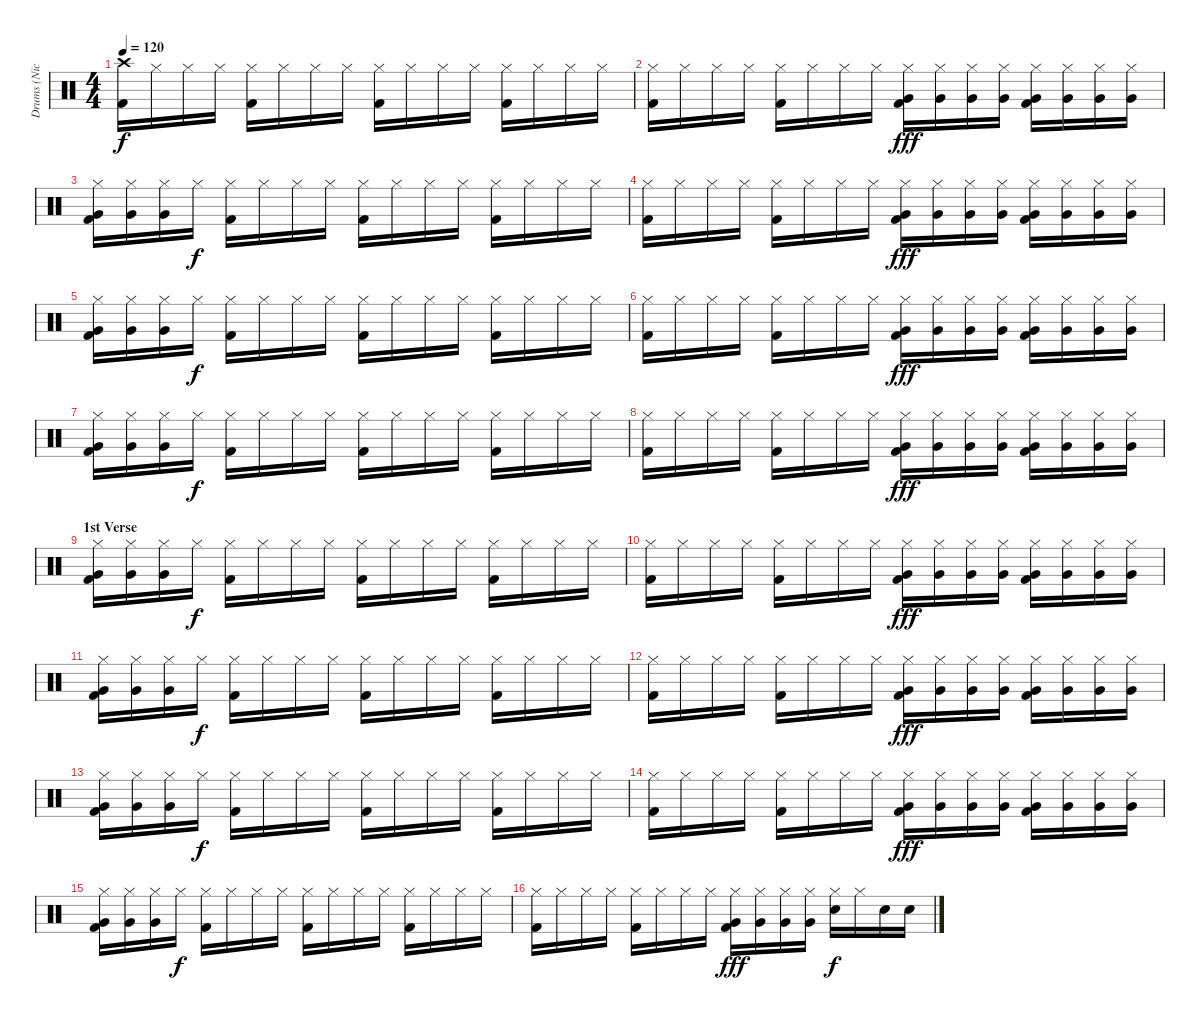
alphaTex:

\track ("Drums (Nick Menza)" "Drums (Nic") {instrument percussion}
\staff {score}
\articulation defaults
\ts (4 4)
\tempo 120
\clef neutral
\ks c
("Crash high (hit)" "Kick (hit) 2").16{dy f} "Hi-Hat (closed)".16 "Hi-Hat (closed)".16 "Hi-Hat (closed)".16 ("Hi-Hat (closed)" "Kick (hit) 2").16 "Hi-Hat (closed)".16 "Hi-Hat (closed)".16 "Hi-Hat (closed)".16 ("Hi-Hat (closed)" "Kick (hit) 2").16 "Hi-Hat (closed)".16 "Hi-Hat (closed)".16 "Hi-Hat (closed)".16 ("Hi-Hat (closed)" "Kick (hit) 2").16 "Hi-Hat (closed)".16 "Hi-Hat (closed)".16 "Hi-Hat (closed)".16 |
("Hi-Hat (closed)" "Kick (hit) 2").16 "Hi-Hat (closed)".16 "Hi-Hat (closed)".16 "Hi-Hat (closed)".16 ("Hi-Hat (closed)" "Kick (hit) 2").16 "Hi-Hat (closed)".16 "Hi-Hat (closed)".16 "Hi-Hat (closed)".16 ("Hi-Hat (closed)" "Very Low Tom (hit)" "Kick (hit) 2").16{dy fff} ("Hi-Hat (closed)" "Very Low Tom (hit)").16 ("Hi-Hat (closed)" "Very Low Tom (hit)").16 ("Hi-Hat (closed)" "Very Low Tom (hit)").16 ("Hi-Hat (closed)" "Very Low Tom (hit)" "Kick (hit) 2").16 ("Hi-Hat (closed)" "Very Low Tom (hit)").16 ("Hi-Hat (closed)" "Very Low Tom (hit)").16 ("Hi-Hat (closed)" "Very Low Tom (hit)").16 |
("Hi-Hat (closed)" "Very Low Tom (hit)" "Kick (hit) 2").16 ("Hi-Hat (closed)" "Very Low Tom (hit)").16 ("Hi-Hat (closed)" "Very Low Tom (hit)").16 "Hi-Hat (closed)".16{dy f} ("Hi-Hat (closed)" "Kick (hit) 2").16 "Hi-Hat (closed)".16 "Hi-Hat (closed)".16 "Hi-Hat (closed)".16 ("Hi-Hat (closed)" "Kick (hit) 2").16 "Hi-Hat (closed)".16 "Hi-Hat (closed)".16 "Hi-Hat (closed)".16 ("Hi-Hat (closed)" "Kick (hit) 2").16 "Hi-Hat (closed)".16 "Hi-Hat (closed)".16 "Hi-Hat (closed)".16 |
("Hi-Hat (closed)" "Kick (hit) 2").16 "Hi-Hat (closed)".16 "Hi-Hat (closed)".16 "Hi-Hat (closed)".16 ("Hi-Hat (closed)" "Kick (hit) 2").16 "Hi-Hat (closed)".16 "Hi-Hat (closed)".16 "Hi-Hat (closed)".16 ("Hi-Hat (closed)" "Very Low Tom (hit)" "Kick (hit) 2").16{dy fff} ("Hi-Hat (closed)" "Very Low Tom (hit)").16 ("Hi-Hat (closed)" "Very Low Tom (hit)").16 ("Hi-Hat (closed)" "Very Low Tom (hit)").16 ("Hi-Hat (closed)" "Very Low Tom (hit)" "Kick (hit) 2").16 ("Hi-Hat (closed)" "Very Low Tom (hit)").16 ("Hi-Hat (closed)" "Very Low Tom (hit)").16 ("Hi-Hat (closed)" "Very Low Tom (hit)").16 |
("Hi-Hat (closed)" "Very Low Tom (hit)" "Kick (hit) 2").16 ("Hi-Hat (closed)" "Very Low Tom (hit)").16 ("Hi-Hat (closed)" "Very Low Tom (hit)").16 "Hi-Hat (closed)".16{dy f} ("Hi-Hat (closed)" "Kick (hit) 2").16 "Hi-Hat (closed)".16 "Hi-Hat (closed)".16 "Hi-Hat (closed)".16 ("Hi-Hat (closed)" "Kick (hit) 2").16 "Hi-Hat (closed)".16 "Hi-Hat (closed)".16 "Hi-Hat (closed)".16 ("Hi-Hat (closed)" "Kick (hit) 2").16 "Hi-Hat (closed)".16 "Hi-Hat (closed)".16 "Hi-Hat (closed)".16 |
("Hi-Hat (closed)" "Kick (hit) 2").16 "Hi-Hat (closed)".16 "Hi-Hat (closed)".16 "Hi-Hat (closed)".16 ("Hi-Hat (closed)" "Kick (hit) 2").16 "Hi-Hat (closed)".16 "Hi-Hat (closed)".16 "Hi-Hat (closed)".16 ("Hi-Hat (closed)" "Very Low Tom (hit)" "Kick (hit) 2").16{dy fff} ("Hi-Hat (closed)" "Very Low Tom (hit)").16 ("Hi-Hat (closed)" "Very Low Tom (hit)").16 ("Hi-Hat (closed)" "Very Low Tom (hit)").16 ("Hi-Hat (closed)" "Very Low Tom (hit)" "Kick (hit) 2").16 ("Hi-Hat (closed)" "Very Low Tom (hit)").16 ("Hi-Hat (closed)" "Very Low Tom (hit)").16 ("Hi-Hat (closed)" "Very Low Tom (hit)").16 |
("Hi-Hat (closed)" "Very Low Tom (hit)" "Kick (hit) 2").16 ("Hi-Hat (closed)" "Very Low Tom (hit)").16 ("Hi-Hat (closed)" "Very Low Tom (hit)").16 "Hi-Hat (closed)".16{dy f} ("Hi-Hat (closed)" "Kick (hit) 2").16 "Hi-Hat (closed)".16 "Hi-Hat (closed)".16 "Hi-Hat (closed)".16 ("Hi-Hat (closed)" "Kick (hit) 2").16 "Hi-Hat (closed)".16 "Hi-Hat (closed)".16 "Hi-Hat (closed)".16 ("Hi-Hat (closed)" "Kick (hit) 2").16 "Hi-Hat (closed)".16 "Hi-Hat (closed)".16 "Hi-Hat (closed)".16 |
("Hi-Hat (closed)" "Kick (hit) 2").16 "Hi-Hat (closed)".16 "Hi-Hat (closed)".16 "Hi-Hat (closed)".16 ("Hi-Hat (closed)" "Kick (hit) 2").16 "Hi-Hat (closed)".16 "Hi-Hat (closed)".16 "Hi-Hat (closed)".16 ("Hi-Hat (closed)" "Very Low Tom (hit)" "Kick (hit) 2").16{dy fff} ("Hi-Hat (closed)" "Very Low Tom (hit)").16 ("Hi-Hat (closed)" "Very Low Tom (hit)").16 ("Hi-Hat (closed)" "Very Low Tom (hit)").16 ("Hi-Hat (closed)" "Very Low Tom (hit)" "Kick (hit) 2").16 ("Hi-Hat (closed)" "Very Low Tom (hit)").16 ("Hi-Hat (closed)" "Very Low Tom (hit)").16 ("Hi-Hat (closed)" "Very Low Tom (hit)").16 |
\section ("" "1st Verse")
("Hi-Hat (closed)" "Very Low Tom (hit)" "Kick (hit) 2").16 ("Hi-Hat (closed)" "Very Low Tom (hit)").16 ("Hi-Hat (closed)" "Very Low Tom (hit)").16 "Hi-Hat (closed)".16{dy f} ("Hi-Hat (closed)" "Kick (hit) 2").16 "Hi-Hat (closed)".16 "Hi-Hat (closed)".16 "Hi-Hat (closed)".16 ("Hi-Hat (closed)" "Kick (hit) 2").16 "Hi-Hat (closed)".16 "Hi-Hat (closed)".16 "Hi-Hat (closed)".16 ("Hi-Hat (closed)" "Kick (hit) 2").16 "Hi-Hat (closed)".16 "Hi-Hat (closed)".16 "Hi-Hat (closed)".16 |
("Hi-Hat (closed)" "Kick (hit) 2").16 "Hi-Hat (closed)".16 "Hi-Hat (closed)".16 "Hi-Hat (closed)".16 ("Hi-Hat (closed)" "Kick (hit) 2").16 "Hi-Hat (closed)".16 "Hi-Hat (closed)".16 "Hi-Hat (closed)".16 ("Hi-Hat (closed)" "Very Low Tom (hit)" "Kick (hit) 2").16{dy fff} ("Hi-Hat (closed)" "Very Low Tom (hit)").16 ("Hi-Hat (closed)" "Very Low Tom (hit)").16 ("Hi-Hat (closed)" "Very Low Tom (hit)").16 ("Hi-Hat (closed)" "Very Low Tom (hit)" "Kick (hit) 2").16 ("Hi-Hat (closed)" "Very Low Tom (hit)").16 ("Hi-Hat (closed)" "Very Low Tom (hit)").16 ("Hi-Hat (closed)" "Very Low Tom (hit)").16 |
("Hi-Hat (closed)" "Very Low Tom (hit)" "Kick (hit) 2").16 ("Hi-Hat (closed)" "Very Low Tom (hit)").16 ("Hi-Hat (closed)" "Very Low Tom (hit)").16 "Hi-Hat (closed)".16{dy f} ("Hi-Hat (closed)" "Kick (hit) 2").16 "Hi-Hat (closed)".16 "Hi-Hat (closed)".16 "Hi-Hat (closed)".16 ("Hi-Hat (closed)" "Kick (hit) 2").16 "Hi-Hat (closed)".16 "Hi-Hat (closed)".16 "Hi-Hat (closed)".16 ("Hi-Hat (closed)" "Kick (hit) 2").16 "Hi-Hat (closed)".16 "Hi-Hat (closed)".16 "Hi-Hat (closed)".16 |
("Hi-Hat (closed)" "Kick (hit) 2").16 "Hi-Hat (closed)".16 "Hi-Hat (closed)".16 "Hi-Hat (closed)".16 ("Hi-Hat (closed)" "Kick (hit) 2").16 "Hi-Hat (closed)".16 "Hi-Hat (closed)".16 "Hi-Hat (closed)".16 ("Hi-Hat (closed)" "Very Low Tom (hit)" "Kick (hit) 2").16{dy fff} ("Hi-Hat (closed)" "Very Low Tom (hit)").16 ("Hi-Hat (closed)" "Very Low Tom (hit)").16 ("Hi-Hat (closed)" "Very Low Tom (hit)").16 ("Hi-Hat (closed)" "Very Low Tom (hit)" "Kick (hit) 2").16 ("Hi-Hat (closed)" "Very Low Tom (hit)").16 ("Hi-Hat (closed)" "Very Low Tom (hit)").16 ("Hi-Hat (closed)" "Very Low Tom (hit)").16 |
("Hi-Hat (closed)" "Very Low Tom (hit)" "Kick (hit) 2").16 ("Hi-Hat (closed)" "Very Low Tom (hit)").16 ("Hi-Hat (closed)" "Very Low Tom (hit)").16 "Hi-Hat (closed)".16{dy f} ("Hi-Hat (closed)" "Kick (hit) 2").16 "Hi-Hat (closed)".16 "Hi-Hat (closed)".16 "Hi-Hat (closed)".16 ("Hi-Hat (closed)" "Kick (hit) 2").16 "Hi-Hat (closed)".16 "Hi-Hat (closed)".16 "Hi-Hat (closed)".16 ("Hi-Hat (closed)" "Kick (hit) 2").16 "Hi-Hat (closed)".16 "Hi-Hat (closed)".16 "Hi-Hat (closed)".16 |
("Hi-Hat (closed)" "Kick (hit) 2").16 "Hi-Hat (closed)".16 "Hi-Hat (closed)".16 "Hi-Hat (closed)".16 ("Hi-Hat (closed)" "Kick (hit) 2").16 "Hi-Hat (closed)".16 "Hi-Hat (closed)".16 "Hi-Hat (closed)".16 ("Hi-Hat (closed)" "Very Low Tom (hit)" "Kick (hit) 2").16{dy fff} ("Hi-Hat (closed)" "Very Low Tom (hit)").16 ("Hi-Hat (closed)" "Very Low Tom (hit)").16 ("Hi-Hat (closed)" "Very Low Tom (hit)").16 ("Hi-Hat (closed)" "Very Low Tom (hit)" "Kick (hit) 2").16 ("Hi-Hat (closed)" "Very Low Tom (hit)").16 ("Hi-Hat (closed)" "Very Low Tom (hit)").16 ("Hi-Hat (closed)" "Very Low Tom (hit)").16 |
("Hi-Hat (closed)" "Very Low Tom (hit)" "Kick (hit) 2").16 ("Hi-Hat (closed)" "Very Low Tom (hit)").16 ("Hi-Hat (closed)" "Very Low Tom (hit)").16 "Hi-Hat (closed)".16{dy f} ("Hi-Hat (closed)" "Kick (hit) 2").16 "Hi-Hat (closed)".16 "Hi-Hat (closed)".16 "Hi-Hat (closed)".16 ("Hi-Hat (closed)" "Kick (hit) 2").16 "Hi-Hat (closed)".16 "Hi-Hat (closed)".16 "Hi-Hat (closed)".16 ("Hi-Hat (closed)" "Kick (hit) 2").16 "Hi-Hat (closed)".16 "Hi-Hat (closed)".16 "Hi-Hat (closed)".16 |
("Hi-Hat (closed)" "Kick (hit) 2").16 "Hi-Hat (closed)".16 "Hi-Hat (closed)".16 "Hi-Hat (closed)".16 ("Hi-Hat (closed)" "Kick (hit) 2").16 "Hi-Hat (closed)".16 "Hi-Hat (closed)".16 "Hi-Hat (closed)".16 ("Hi-Hat (closed)" "Very Low Tom (hit)" "Kick (hit) 2").16{dy fff} ("Hi-Hat (closed)" "Very Low Tom (hit)").16 ("Hi-Hat (closed)" "Very Low Tom (hit)").16 ("Hi-Hat (closed)" "Very Low Tom (hit)").16 ("Hi-Hat (closed)" "Snare (hit) 2").16{dy f} "Hi-Hat (closed)".16 "Snare (hit) 2".16 "Snare (hit) 2".16
